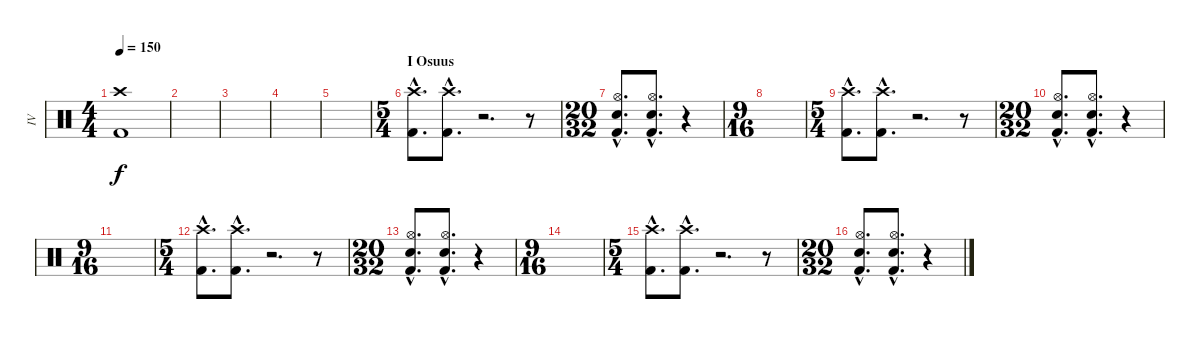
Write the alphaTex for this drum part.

\track ("IV" "IV") {instrument percussion}
\staff {score}
\articulation defaults
\ts (4 4)
\tempo 150
\clef neutral
\ks c
("Crash high (hit)" "Kick (hit) 2").1{dy f} |
|
|
|
|
\ts (5 4)
\section ("" "I Osuus")
("Crash high (hit)"{hac} "Kick (hit) 2"{hac}).8{d} ("Crash high (hit)"{hac} "Kick (hit) 2"{hac}).8{d} r.2{d} r.8 |
\ts (20 32)
("Hi-Hat (open)"{hac} "Snare (hit) 2"{hac} "Kick (hit) 2"{hac}).8{d} ("Hi-Hat (open)"{hac} "Snare (hit) 2"{hac} "Kick (hit) 2"{hac}).8{d} r.4 |
\ts (9 16)
|
\ts (5 4)
("Crash high (hit)"{hac} "Kick (hit) 2"{hac}).8{d} ("Crash high (hit)"{hac} "Kick (hit) 2"{hac}).8{d} r.2{d} r.8 |
\ts (20 32)
("Hi-Hat (open)"{hac} "Snare (hit) 2"{hac} "Kick (hit) 2"{hac}).8{d} ("Hi-Hat (open)"{hac} "Snare (hit) 2"{hac} "Kick (hit) 2"{hac}).8{d} r.4 |
\ts (9 16)
|
\ts (5 4)
("Crash high (hit)"{hac} "Kick (hit) 2"{hac}).8{d} ("Crash high (hit)"{hac} "Kick (hit) 2"{hac}).8{d} r.2{d} r.8 |
\ts (20 32)
("Hi-Hat (open)"{hac} "Snare (hit) 2"{hac} "Kick (hit) 2"{hac}).8{d} ("Hi-Hat (open)"{hac} "Snare (hit) 2"{hac} "Kick (hit) 2"{hac}).8{d} r.4 |
\ts (9 16)
|
\ts (5 4)
("Crash high (hit)"{hac} "Kick (hit) 2"{hac}).8{d} ("Crash high (hit)"{hac} "Kick (hit) 2"{hac}).8{d} r.2{d} r.8 |
\ts (20 32)
("Hi-Hat (open)"{hac} "Snare (hit) 2"{hac} "Kick (hit) 2"{hac}).8{d} ("Hi-Hat (open)"{hac} "Snare (hit) 2"{hac} "Kick (hit) 2"{hac}).8{d} r.4
